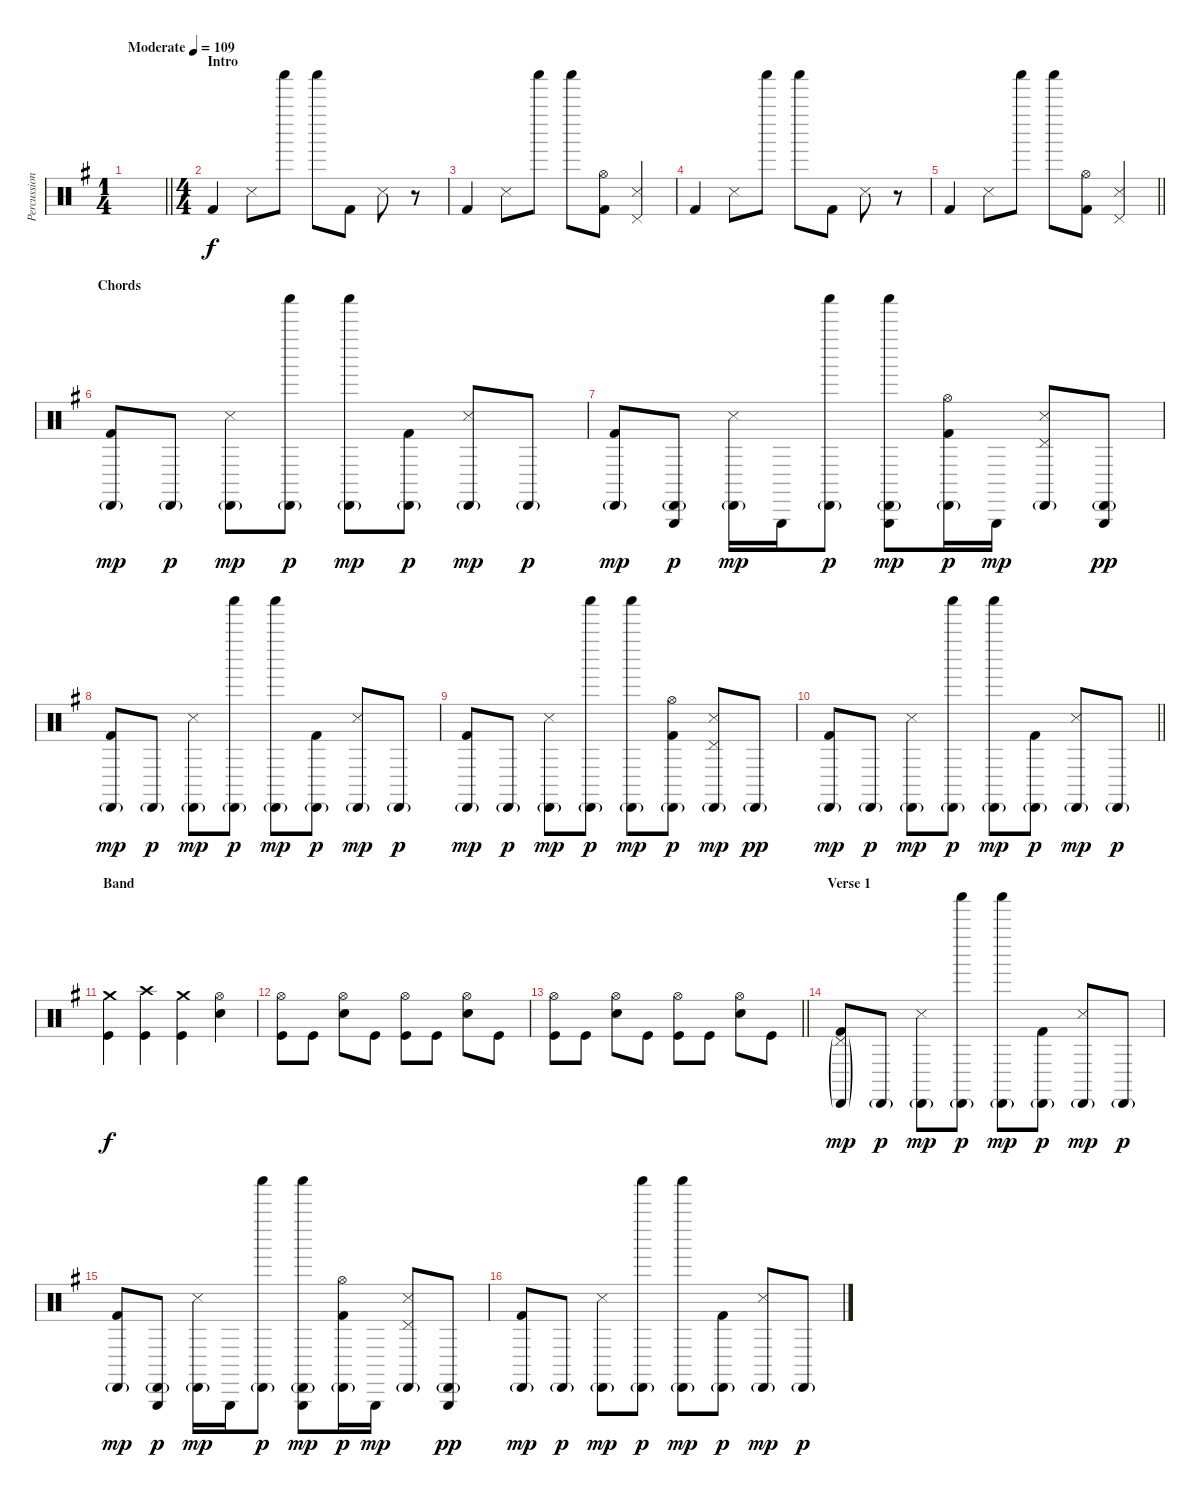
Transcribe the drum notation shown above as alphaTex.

\track ("Percussion" "Percussion") {instrument percussion}
\staff {score}
\articulation defaults
\ts (1 4)
\tempo (109 "Moderate")
\clef neutral
\barLineRight lightlight
\ks g
|
\ts (4 4)
\section ("" "Intro")
"Kick (hit) 2".4 "Snare (side stick) 3".8 "Shaker (hit)".8 "Shaker (hit)".8 "Kick (hit) 2".8 "Snare (side stick) 3".8 r.8 |
"Kick (hit) 2".4 "Snare (side stick) 3".8 "Shaker (hit)".8 "Shaker (hit)".8 ("Hi-Hat (open)" "Kick (hit) 2").8 ("Snare (side stick) 3" "Pedal Hi-Hat (hit)").4 |
"Kick (hit) 2".4 "Snare (side stick) 3".8 "Shaker (hit)".8 "Shaker (hit)".8 "Kick (hit) 2".8 "Snare (side stick) 3".8 r.8 |
\barLineRight lightlight "Kick (hit) 2".4 "Snare (side stick) 3".8 "Shaker (hit)".8 "Shaker (hit)".8
("Hi-Hat (open)" "Kick (hit) 2").8 ("Snare (side stick) 3" "Pedal Hi-Hat (hit)").4 |
\section ("" "Chords")
("Cabasa (hit)"{g} "Kick (hit) 2").8{dy mp} "Cabasa (hit)"{g}.8{dy p} ("Snare (side stick) 3" "Cabasa (hit)"{g}).8{dy mp} ("Shaker (hit)" "Cabasa (hit)"{g}).8{dy p} ("Shaker (hit)" "Cabasa (hit)"{g}).8{dy mp} ("Cabasa (hit)"{g} "Kick (hit) 2").8{dy p} ("Snare (side stick) 3" "Cabasa (hit)"{g}).8{dy mp} "Cabasa (hit)"{g}.8{dy p} |
("Cabasa (hit)"{g} "Kick (hit) 2").8{dy mp} ("Triangle (hit)" "Cabasa (hit)"{g}).8{dy p} ("Snare (side stick) 3" "Cabasa (hit)"{g}).16{dy mp} "Triangle (hit)".16 ("Shaker (hit)" "Cabasa (hit)"{g}).8{dy p} ("Triangle (hit)" "Shaker (hit)" "Cabasa (hit)"{g}).8{dy mp} ("Hi-Hat (open)" "Cabasa (hit)"{g} "Kick (hit) 2").16{dy p} "Triangle (hit)".16{dy mp} ("Snare (side stick) 3" "Pedal Hi-Hat (hit)" "Cabasa (hit)"{g}).8 ("Triangle (hit)" "Cabasa (hit)"{g}).8{dy pp} |
("Cabasa (hit)"{g} "Kick (hit) 2").8{dy mp} "Cabasa (hit)"{g}.8{dy p} ("Snare (side stick) 3" "Cabasa (hit)"{g}).8{dy mp} ("Shaker (hit)" "Cabasa (hit)"{g}).8{dy p} ("Shaker (hit)" "Cabasa (hit)"{g}).8{dy mp} ("Cabasa (hit)"{g} "Kick (hit) 2").8{dy p} ("Snare (side stick) 3" "Cabasa (hit)"{g}).8{dy mp} "Cabasa (hit)"{g}.8{dy p} |
("Cabasa (hit)"{g} "Kick (hit) 2").8{dy mp} "Cabasa (hit)"{g}.8{dy p} ("Snare (side stick) 3" "Cabasa (hit)"{g}).8{dy mp} ("Shaker (hit)" "Cabasa (hit)"{g}).8{dy p} ("Shaker (hit)" "Cabasa (hit)"{g}).8{dy mp} ("Hi-Hat (open)" "Cabasa (hit)"{g} "Kick (hit) 2").8{dy p} ("Snare (side stick) 3" "Pedal Hi-Hat (hit)" "Cabasa (hit)"{g}).8{dy mp} "Cabasa (hit)"{g}.8{dy pp} |
\barLineRight lightlight
("Cabasa (hit)"{g} "Kick (hit) 2").8{dy mp} "Cabasa (hit)"{g}.8{dy p} ("Snare (side stick) 3" "Cabasa (hit)"{g}).8{dy mp} ("Shaker (hit)" "Cabasa (hit)"{g}).8{dy p} ("Shaker (hit)" "Cabasa (hit)"{g}).8{dy mp} ("Cabasa (hit)"{g} "Kick (hit) 2").8{dy p} ("Snare (side stick) 3" "Cabasa (hit)"{g}).8{dy mp} "Cabasa (hit)"{g}.8{dy p} |
\section ("" "Band")
("Crash medium (hit)" "Kick (hit)").4{dy f} ("Crash high (hit)" "Kick (hit)").4 ("Crash medium (hit)" "Kick (hit)").4 ("Hi-Hat (open)" "Electric Snare (hit)").4 |
("Hi-Hat (open)" "Kick (hit)").8 "Kick (hit)".8 ("Hi-Hat (open)" "Electric Snare (hit)").8 "Kick (hit)".8 ("Hi-Hat (open)" "Kick (hit)").8 "Kick (hit)".8 ("Hi-Hat (open)" "Electric Snare (hit)").8 "Kick (hit)".8 |
\barLineRight lightlight
("Hi-Hat (open)" "Kick (hit)").8 "Kick (hit)".8 ("Hi-Hat (open)" "Electric Snare (hit)").8 "Kick (hit)".8 ("Hi-Hat (open)" "Kick (hit)").8 "Kick (hit)".8 ("Hi-Hat (open)" "Electric Snare (hit)").8 "Kick (hit)".8 |
\section ("" "Verse 1")
("Pedal Hi-Hat (hit)"{g} "Cabasa (hit)"{g} "Kick (hit) 2").8{dy mp} "Cabasa (hit)"{g}.8{dy p} ("Snare (side stick) 3" "Cabasa (hit)"{g}).8{dy mp} ("Shaker (hit)" "Cabasa (hit)"{g}).8{dy p} ("Shaker (hit)" "Cabasa (hit)"{g}).8{dy mp} ("Cabasa (hit)"{g} "Kick (hit) 2").8{dy p} ("Snare (side stick) 3" "Cabasa (hit)"{g}).8{dy mp} "Cabasa (hit)"{g}.8{dy p} |
("Cabasa (hit)"{g} "Kick (hit) 2").8{dy mp} ("Triangle (hit)" "Cabasa (hit)"{g}).8{dy p} ("Snare (side stick) 3" "Cabasa (hit)"{g}).16{dy mp} "Triangle (hit)".16 ("Shaker (hit)" "Cabasa (hit)"{g}).8{dy p} ("Triangle (hit)" "Shaker (hit)" "Cabasa (hit)"{g}).8{dy mp} ("Hi-Hat (open)" "Cabasa (hit)"{g} "Kick (hit) 2").16{dy p} "Triangle (hit)".16{dy mp} ("Snare (side stick) 3" "Pedal Hi-Hat (hit)" "Cabasa (hit)"{g}).8 ("Triangle (hit)" "Cabasa (hit)"{g}).8{dy pp} |
("Cabasa (hit)"{g} "Kick (hit) 2").8{dy mp} "Cabasa (hit)"{g}.8{dy p} ("Snare (side stick) 3" "Cabasa (hit)"{g}).8{dy mp} ("Shaker (hit)" "Cabasa (hit)"{g}).8{dy p} ("Shaker (hit)" "Cabasa (hit)"{g}).8{dy mp} ("Cabasa (hit)"{g} "Kick (hit) 2").8{dy p} ("Snare (side stick) 3" "Cabasa (hit)"{g}).8{dy mp} "Cabasa (hit)"{g}.8{dy p}
